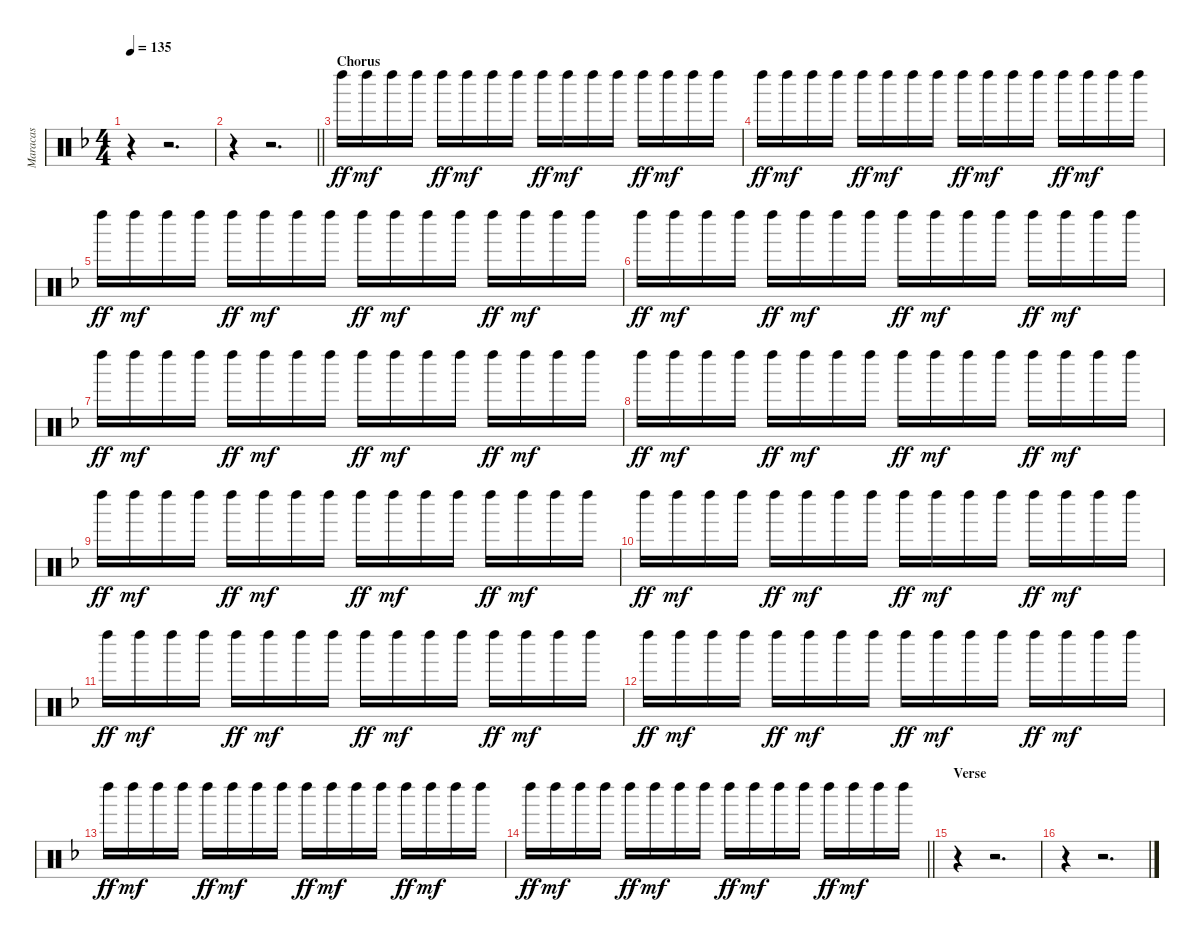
\track ("Maracas" "Maracas") {instrument percussion}
\staff {score}
\articulation defaults
\ts (4 4)
\tempo 135
\clef neutral
\ks f
r.4{dy ff} r.2{d} |
\barLineRight lightlight
r.4 r.2{d} |
\section ("" "Chorus")
"Left Maraca (hit)".16 "Left Maraca (hit)".16{dy mf} "Left Maraca (hit)".16 "Left Maraca (hit)".16 "Left Maraca (hit)".16{dy ff} "Left Maraca (hit)".16{dy mf} "Left Maraca (hit)".16 "Left Maraca (hit)".16 "Left Maraca (hit)".16{dy ff} "Left Maraca (hit)".16{dy mf} "Left Maraca (hit)".16 "Left Maraca (hit)".16 "Left Maraca (hit)".16{dy ff} "Left Maraca (hit)".16{dy mf} "Left Maraca (hit)".16 "Left Maraca (hit)".16 |
"Left Maraca (hit)".16{dy ff} "Left Maraca (hit)".16{dy mf} "Left Maraca (hit)".16 "Left Maraca (hit)".16 "Left Maraca (hit)".16{dy ff} "Left Maraca (hit)".16{dy mf} "Left Maraca (hit)".16 "Left Maraca (hit)".16 "Left Maraca (hit)".16{dy ff} "Left Maraca (hit)".16{dy mf} "Left Maraca (hit)".16 "Left Maraca (hit)".16 "Left Maraca (hit)".16{dy ff} "Left Maraca (hit)".16{dy mf} "Left Maraca (hit)".16 "Left Maraca (hit)".16 |
"Left Maraca (hit)".16{dy ff} "Left Maraca (hit)".16{dy mf} "Left Maraca (hit)".16 "Left Maraca (hit)".16 "Left Maraca (hit)".16{dy ff} "Left Maraca (hit)".16{dy mf} "Left Maraca (hit)".16 "Left Maraca (hit)".16 "Left Maraca (hit)".16{dy ff} "Left Maraca (hit)".16{dy mf} "Left Maraca (hit)".16 "Left Maraca (hit)".16 "Left Maraca (hit)".16{dy ff} "Left Maraca (hit)".16{dy mf} "Left Maraca (hit)".16 "Left Maraca (hit)".16 |
"Left Maraca (hit)".16{dy ff} "Left Maraca (hit)".16{dy mf} "Left Maraca (hit)".16 "Left Maraca (hit)".16 "Left Maraca (hit)".16{dy ff} "Left Maraca (hit)".16{dy mf} "Left Maraca (hit)".16 "Left Maraca (hit)".16 "Left Maraca (hit)".16{dy ff} "Left Maraca (hit)".16{dy mf} "Left Maraca (hit)".16 "Left Maraca (hit)".16 "Left Maraca (hit)".16{dy ff} "Left Maraca (hit)".16{dy mf} "Left Maraca (hit)".16 "Left Maraca (hit)".16 |
"Left Maraca (hit)".16{dy ff} "Left Maraca (hit)".16{dy mf} "Left Maraca (hit)".16 "Left Maraca (hit)".16 "Left Maraca (hit)".16{dy ff} "Left Maraca (hit)".16{dy mf} "Left Maraca (hit)".16 "Left Maraca (hit)".16 "Left Maraca (hit)".16{dy ff} "Left Maraca (hit)".16{dy mf} "Left Maraca (hit)".16 "Left Maraca (hit)".16 "Left Maraca (hit)".16{dy ff} "Left Maraca (hit)".16{dy mf} "Left Maraca (hit)".16 "Left Maraca (hit)".16 |
"Left Maraca (hit)".16{dy ff} "Left Maraca (hit)".16{dy mf} "Left Maraca (hit)".16 "Left Maraca (hit)".16 "Left Maraca (hit)".16{dy ff} "Left Maraca (hit)".16{dy mf} "Left Maraca (hit)".16 "Left Maraca (hit)".16 "Left Maraca (hit)".16{dy ff} "Left Maraca (hit)".16{dy mf} "Left Maraca (hit)".16 "Left Maraca (hit)".16 "Left Maraca (hit)".16{dy ff} "Left Maraca (hit)".16{dy mf} "Left Maraca (hit)".16 "Left Maraca (hit)".16 |
"Left Maraca (hit)".16{dy ff} "Left Maraca (hit)".16{dy mf} "Left Maraca (hit)".16 "Left Maraca (hit)".16 "Left Maraca (hit)".16{dy ff} "Left Maraca (hit)".16{dy mf} "Left Maraca (hit)".16 "Left Maraca (hit)".16 "Left Maraca (hit)".16{dy ff} "Left Maraca (hit)".16{dy mf} "Left Maraca (hit)".16 "Left Maraca (hit)".16 "Left Maraca (hit)".16{dy ff} "Left Maraca (hit)".16{dy mf} "Left Maraca (hit)".16 "Left Maraca (hit)".16 |
"Left Maraca (hit)".16{dy ff} "Left Maraca (hit)".16{dy mf} "Left Maraca (hit)".16 "Left Maraca (hit)".16 "Left Maraca (hit)".16{dy ff} "Left Maraca (hit)".16{dy mf} "Left Maraca (hit)".16 "Left Maraca (hit)".16 "Left Maraca (hit)".16{dy ff} "Left Maraca (hit)".16{dy mf} "Left Maraca (hit)".16 "Left Maraca (hit)".16 "Left Maraca (hit)".16{dy ff} "Left Maraca (hit)".16{dy mf} "Left Maraca (hit)".16 "Left Maraca (hit)".16 |
"Left Maraca (hit)".16{dy ff} "Left Maraca (hit)".16{dy mf} "Left Maraca (hit)".16 "Left Maraca (hit)".16 "Left Maraca (hit)".16{dy ff} "Left Maraca (hit)".16{dy mf} "Left Maraca (hit)".16 "Left Maraca (hit)".16 "Left Maraca (hit)".16{dy ff} "Left Maraca (hit)".16{dy mf} "Left Maraca (hit)".16 "Left Maraca (hit)".16 "Left Maraca (hit)".16{dy ff} "Left Maraca (hit)".16{dy mf} "Left Maraca (hit)".16 "Left Maraca (hit)".16 |
"Left Maraca (hit)".16{dy ff} "Left Maraca (hit)".16{dy mf} "Left Maraca (hit)".16 "Left Maraca (hit)".16 "Left Maraca (hit)".16{dy ff} "Left Maraca (hit)".16{dy mf} "Left Maraca (hit)".16 "Left Maraca (hit)".16 "Left Maraca (hit)".16{dy ff} "Left Maraca (hit)".16{dy mf} "Left Maraca (hit)".16 "Left Maraca (hit)".16 "Left Maraca (hit)".16{dy ff} "Left Maraca (hit)".16{dy mf} "Left Maraca (hit)".16 "Left Maraca (hit)".16 |
"Left Maraca (hit)".16{dy ff} "Left Maraca (hit)".16{dy mf} "Left Maraca (hit)".16 "Left Maraca (hit)".16 "Left Maraca (hit)".16{dy ff} "Left Maraca (hit)".16{dy mf} "Left Maraca (hit)".16 "Left Maraca (hit)".16 "Left Maraca (hit)".16{dy ff} "Left Maraca (hit)".16{dy mf} "Left Maraca (hit)".16 "Left Maraca (hit)".16 "Left Maraca (hit)".16{dy ff} "Left Maraca (hit)".16{dy mf} "Left Maraca (hit)".16 "Left Maraca (hit)".16 |
\barLineRight lightlight "Left Maraca (hit)".16{dy ff} "Left Maraca (hit)".16{dy mf} "Left Maraca (hit)".16 "Left Maraca (hit)".16 "Left Maraca (hit)".16{dy ff} "Left Maraca (hit)".16{dy mf} "Left Maraca (hit)".16 "Left Maraca (hit)".16 "Left Maraca (hit)".16{dy ff} "Left Maraca (hit)".16{dy mf} "Left Maraca (hit)".16 "Left Maraca (hit)".16 "Left Maraca (hit)".16{dy ff} "Left Maraca (hit)".16{dy mf} "Left Maraca (hit)".16 "Left Maraca (hit)".16
|
\section ("" "Verse")
r.4 r.2{d} |
r.4 r.2{d}
